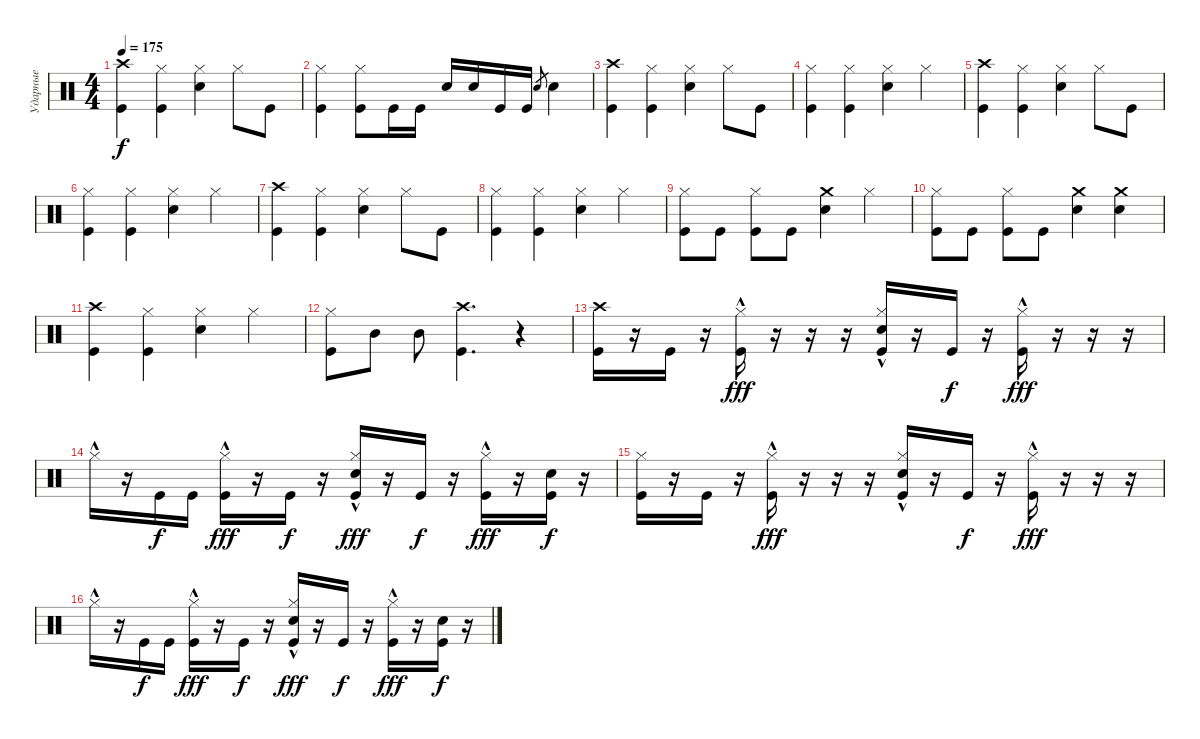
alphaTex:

\track ("Ударные" "Ударные") {instrument percussion}
\staff {score}
\articulation defaults
\ts (4 4)
\tempo 175
\clef neutral
\ks c
("Crash high (hit)" "Kick (hit)").4{dy f} ("Hi-Hat (closed)" "Kick (hit)").4 ("Hi-Hat (closed)" "Electric Snare (hit)").4 "Hi-Hat (closed)".8 "Kick (hit)".8 |
("Kick (hit)" "Hi-Hat (closed)").4 ("Hi-Hat (closed)" "Kick (hit)").8 "Kick (hit)".16 "Kick (hit)".16 "Electric Snare (hit)".16 "Electric Snare (hit)".16 "Kick (hit)".16 "Kick (hit)".16 "Electric Snare (hit)".8{gr} "Electric Snare (hit)".4 |
("Crash high (hit)" "Kick (hit)").4 ("Hi-Hat (closed)" "Kick (hit)").4 ("Hi-Hat (closed)" "Electric Snare (hit)").4 "Hi-Hat (closed)".8 "Kick (hit)".8 |
("Kick (hit)" "Hi-Hat (closed)").4 ("Hi-Hat (closed)" "Kick (hit)").4 ("Hi-Hat (closed)" "Electric Snare (hit)").4 "Hi-Hat (closed)".4 |
("Crash high (hit)" "Kick (hit)").4 ("Hi-Hat (closed)" "Kick (hit)").4 ("Hi-Hat (closed)" "Electric Snare (hit)").4 "Hi-Hat (closed)".8 "Kick (hit)".8 |
("Kick (hit)" "Hi-Hat (closed)").4 ("Hi-Hat (closed)" "Kick (hit)").4 ("Hi-Hat (closed)" "Electric Snare (hit)").4 "Hi-Hat (closed)".4 |
("Crash high (hit)" "Kick (hit)").4 ("Hi-Hat (closed)" "Kick (hit)").4 ("Hi-Hat (closed)" "Electric Snare (hit)").4 "Hi-Hat (closed)".8 "Kick (hit)".8 |
("Kick (hit)" "Hi-Hat (closed)").4 ("Hi-Hat (closed)" "Kick (hit)").4 ("Hi-Hat (closed)" "Electric Snare (hit)").4 "Hi-Hat (closed)".4 |
("Hi-Hat (closed)" "Kick (hit)").8 "Kick (hit)".8 ("Hi-Hat (closed)" "Kick (hit)").8 "Kick (hit)".8 ("Crash medium (hit)" "Electric Snare (hit)").4 "Hi-Hat (closed)".4 |
("Hi-Hat (closed)" "Kick (hit)").8 "Kick (hit)".8 ("Hi-Hat (closed)" "Kick (hit)").8 "Kick (hit)".8 ("Crash medium (hit)" "Electric Snare (hit)").4 ("Crash medium (hit)" "Electric Snare (hit)").4 |
("Crash high (hit)" "Kick (hit)").4 ("Hi-Hat (closed)" "Kick (hit)").4 ("Hi-Hat (closed)" "Electric Snare (hit)").4 "Hi-Hat (closed)".4 |
("Hi-Hat (closed)" "Kick (hit)").8 "Mid Tom (hit)".8 "Mid Tom (hit)".8 ("Crash high (hit)" "Kick (hit)").4{d} r.4 |
("Crash high (hit)" "Kick (hit)").16 r.16 "Kick (hit)".16 r.16 ("Hi-Hat (closed)"{hac} "Kick (hit)").16{dy fff} r.16 r.16 r.16 ("Hi-Hat (closed)"{hac} "Electric Snare (hit)" "Kick (hit)").16 r.16 "Kick (hit)".16{dy f} r.16 ("Hi-Hat (closed)"{hac} "Kick (hit)").16{dy fff} r.16 r.16 r.16 |
"Hi-Hat (closed)"{hac}.16 r.16 "Kick (hit)".16{dy f} "Kick (hit)".16 ("Hi-Hat (closed)"{hac} "Kick (hit)").16{dy fff} r.16 "Kick (hit)".16{dy f} r.16 ("Electric Snare (hit)" "Hi-Hat (closed)"{hac} "Kick (hit)").16{dy fff} r.16 "Kick (hit)".16{dy f} r.16 ("Hi-Hat (closed)"{hac} "Kick (hit)").16{dy fff} r.16 ("Electric Snare (hit)" "Kick (hit)").16{dy f} r.16 |
("Hi-Hat (closed)" "Kick (hit)").16 r.16 "Kick (hit)".16 r.16 ("Hi-Hat (closed)"{hac} "Kick (hit)").16{dy fff} r.16 r.16 r.16 ("Hi-Hat (closed)"{hac} "Electric Snare (hit)" "Kick (hit)").16 r.16 "Kick (hit)".16{dy f} r.16 ("Hi-Hat (closed)"{hac} "Kick (hit)").16{dy fff} r.16 r.16 r.16 |
"Hi-Hat (closed)"{hac}.16 r.16 "Kick (hit)".16{dy f} "Kick (hit)".16 ("Hi-Hat (closed)"{hac} "Kick (hit)").16{dy fff} r.16 "Kick (hit)".16{dy f} r.16 ("Electric Snare (hit)" "Hi-Hat (closed)"{hac} "Kick (hit)").16{dy fff} r.16 "Kick (hit)".16{dy f} r.16 ("Hi-Hat (closed)"{hac} "Kick (hit)").16{dy fff} r.16 ("Electric Snare (hit)" "Kick (hit)").16{dy f} r.16
